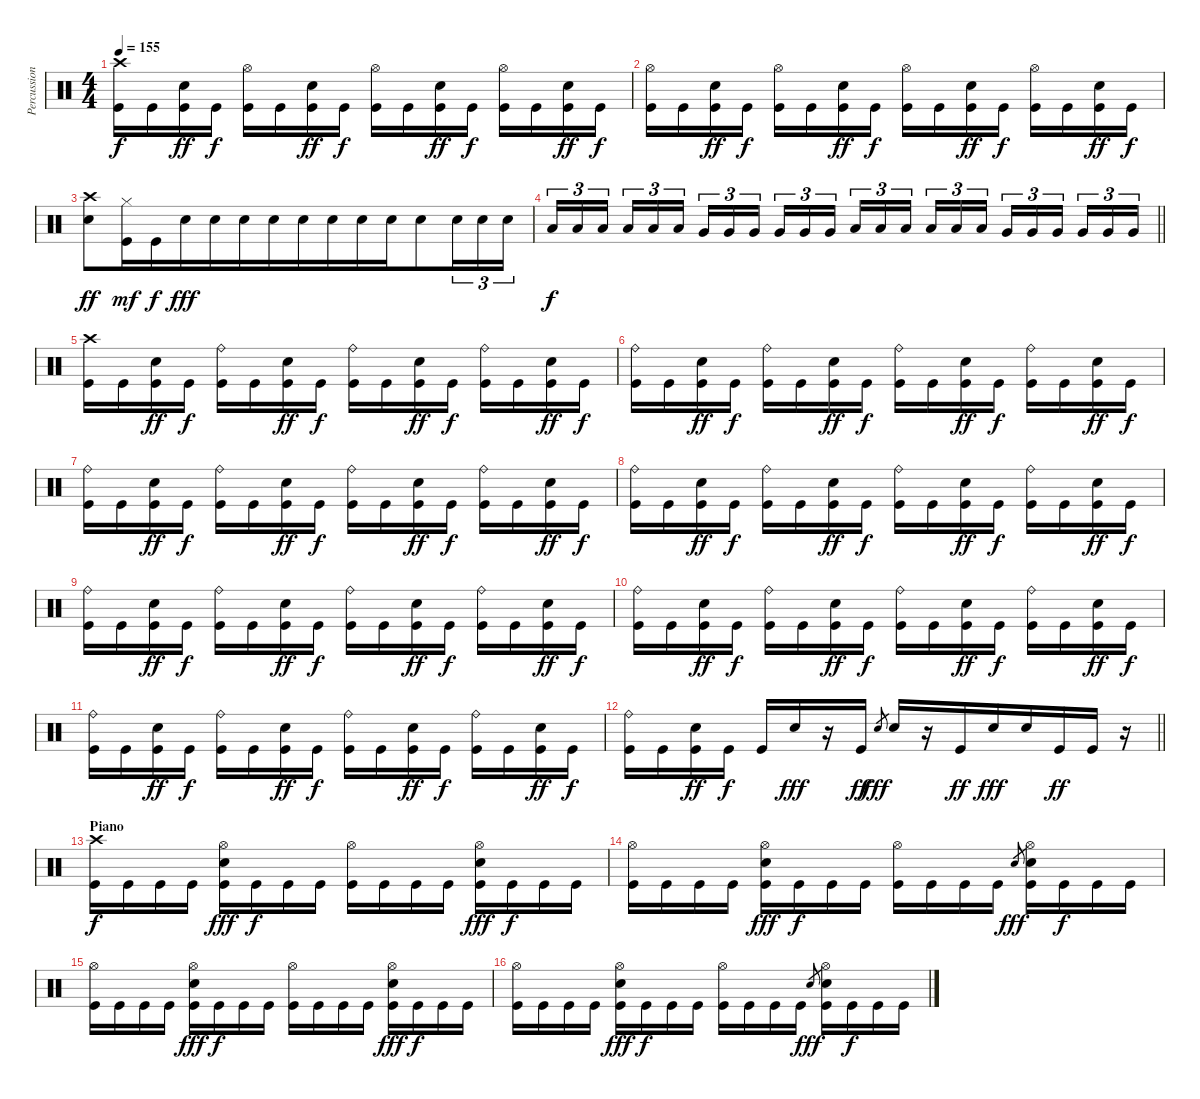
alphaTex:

\track ("Percussions" "Percussion") {instrument percussion}
\staff {score}
\articulation defaults
\ts (4 4)
\tempo 155
\clef neutral
\ks c
("Crash high (hit)" "Kick (hit)").16{dy f} "Kick (hit)".16 ("Electric Snare (hit)" "Kick (hit)").16{dy ff} "Kick (hit)".16{dy f} ("Hi-Hat (open)" "Kick (hit)").16 "Kick (hit)".16 ("Electric Snare (hit)" "Kick (hit)").16{dy ff} "Kick (hit)".16{dy f} ("Hi-Hat (open)" "Kick (hit)").16 "Kick (hit)".16 ("Electric Snare (hit)" "Kick (hit)").16{dy ff} "Kick (hit)".16{dy f} ("Hi-Hat (open)" "Kick (hit)").16 "Kick (hit)".16 ("Electric Snare (hit)" "Kick (hit)").16{dy ff} "Kick (hit)".16{dy f} |
("Hi-Hat (open)" "Kick (hit)").16 "Kick (hit)".16 ("Electric Snare (hit)" "Kick (hit)").16{dy ff} "Kick (hit)".16{dy f} ("Hi-Hat (open)" "Kick (hit)").16 "Kick (hit)".16 ("Electric Snare (hit)" "Kick (hit)").16{dy ff} "Kick (hit)".16{dy f} ("Hi-Hat (open)" "Kick (hit)").16 "Kick (hit)".16 ("Electric Snare (hit)" "Kick (hit)").16{dy ff} "Kick (hit)".16{dy f} ("Hi-Hat (open)" "Kick (hit)").16 "Kick (hit)".16 ("Electric Snare (hit)" "Kick (hit)").16{dy ff} "Kick (hit)".16{dy f} |
("Electric Snare (hit)" "Crash high (hit)").8{dy ff beam merge} ("Kick (hit)" "Hi-Hat (closed)").16{dy mf} "Kick (hit)".16{dy f beam merge} "Electric Snare (hit)".16{dy fff beam merge} "Electric Snare (hit)".16{beam merge} "Electric Snare (hit)".16{beam merge} "Electric Snare (hit)".16{beam merge} "Electric Snare (hit)".16{beam merge} "Electric Snare (hit)".16{beam merge} "Electric Snare (hit)".16{beam merge} "Electric Snare (hit)".16{beam merge} "Electric Snare (hit)".8{beam merge} "Electric Snare (hit)".16{tu (3 2) beam merge} "Electric Snare (hit)".16{tu (3 2) beam merge} "Electric Snare (hit)".16{tu (3 2)} |
\barLineRight lightlight "Low Floor Tom (hit)".16{tu (3 2) dy f beam merge} "Low Floor Tom (hit)".16{tu (3 2) beam merge} "Low Floor Tom (hit)".16{tu (3 2) beam splitsecondary} "Low Floor Tom (hit)".16{tu (3 2) beam merge} "Low Floor Tom (hit)".16{tu (3 2) beam merge} "Low Floor Tom (hit)".16{tu (3 2) beam splitsecondary} "Very Low Tom (hit)".16{tu (3 2) beam merge} "Very Low Tom (hit)".16{tu (3 2) beam merge} "Very Low Tom (hit)".16{tu (3 2) beam splitsecondary} "Very Low Tom (hit)".16{tu (3 2) beam merge} "Very Low Tom (hit)".16{tu (3 2) beam merge} "Very Low Tom (hit)".16{tu (3 2) beam splitsecondary} "Low Floor Tom (hit)".16{tu (3 2) beam merge} "Low Floor Tom (hit)".16{tu (3 2) beam merge} "Low Floor Tom (hit)".16{tu (3 2) beam splitsecondary} "Low Floor Tom (hit)".16{tu (3 2) beam merge} "Low Floor Tom (hit)".16{tu (3 2) beam merge} "Low Floor Tom (hit)".16{tu (3 2) beam splitsecondary} "Very Low Tom (hit)".16{tu (3 2) beam merge} "Very Low Tom (hit)".16{tu (3 2) beam merge} "Very Low Tom (hit)".16{tu (3 2) beam splitsecondary} "Very Low Tom (hit)".16{tu (3 2) beam merge} "Very Low Tom (hit)".16{tu (3 2) beam merge} "Very Low Tom (hit)".16{tu (3 2)}
|
("Crash high (hit)" "Kick (hit)").16 "Kick (hit)".16 ("Electric Snare (hit)" "Kick (hit)").16{dy ff} "Kick (hit)".16{dy f} ("Ride (bell)" "Kick (hit)").16 "Kick (hit)".16 ("Electric Snare (hit)" "Kick (hit)").16{dy ff} "Kick (hit)".16{dy f} ("Ride (bell)" "Kick (hit)").16 "Kick (hit)".16 ("Electric Snare (hit)" "Kick (hit)").16{dy ff} "Kick (hit)".16{dy f} ("Ride (bell)" "Kick (hit)").16 "Kick (hit)".16 ("Electric Snare (hit)" "Kick (hit)").16{dy ff} "Kick (hit)".16{dy f} |
("Ride (bell)" "Kick (hit)").16 "Kick (hit)".16 ("Electric Snare (hit)" "Kick (hit)").16{dy ff} "Kick (hit)".16{dy f} ("Ride (bell)" "Kick (hit)").16 "Kick (hit)".16 ("Electric Snare (hit)" "Kick (hit)").16{dy ff} "Kick (hit)".16{dy f} ("Ride (bell)" "Kick (hit)").16 "Kick (hit)".16 ("Electric Snare (hit)" "Kick (hit)").16{dy ff} "Kick (hit)".16{dy f} ("Ride (bell)" "Kick (hit)").16 "Kick (hit)".16 ("Electric Snare (hit)" "Kick (hit)").16{dy ff} "Kick (hit)".16{dy f} |
("Ride (bell)" "Kick (hit)").16 "Kick (hit)".16 ("Electric Snare (hit)" "Kick (hit)").16{dy ff} "Kick (hit)".16{dy f} ("Ride (bell)" "Kick (hit)").16 "Kick (hit)".16 ("Electric Snare (hit)" "Kick (hit)").16{dy ff} "Kick (hit)".16{dy f} ("Ride (bell)" "Kick (hit)").16 "Kick (hit)".16 ("Electric Snare (hit)" "Kick (hit)").16{dy ff} "Kick (hit)".16{dy f} ("Ride (bell)" "Kick (hit)").16 "Kick (hit)".16 ("Electric Snare (hit)" "Kick (hit)").16{dy ff} "Kick (hit)".16{dy f} |
("Ride (bell)" "Kick (hit)").16 "Kick (hit)".16 ("Electric Snare (hit)" "Kick (hit)").16{dy ff} "Kick (hit)".16{dy f} ("Ride (bell)" "Kick (hit)").16 "Kick (hit)".16 ("Electric Snare (hit)" "Kick (hit)").16{dy ff} "Kick (hit)".16{dy f} ("Ride (bell)" "Kick (hit)").16 "Kick (hit)".16 ("Electric Snare (hit)" "Kick (hit)").16{dy ff} "Kick (hit)".16{dy f} ("Ride (bell)" "Kick (hit)").16 "Kick (hit)".16 ("Electric Snare (hit)" "Kick (hit)").16{dy ff} "Kick (hit)".16{dy f} |
("Ride (bell)" "Kick (hit)").16 "Kick (hit)".16 ("Electric Snare (hit)" "Kick (hit)").16{dy ff} "Kick (hit)".16{dy f} ("Ride (bell)" "Kick (hit)").16 "Kick (hit)".16 ("Electric Snare (hit)" "Kick (hit)").16{dy ff} "Kick (hit)".16{dy f} ("Ride (bell)" "Kick (hit)").16 "Kick (hit)".16 ("Electric Snare (hit)" "Kick (hit)").16{dy ff} "Kick (hit)".16{dy f} ("Ride (bell)" "Kick (hit)").16 "Kick (hit)".16 ("Electric Snare (hit)" "Kick (hit)").16{dy ff} "Kick (hit)".16{dy f} |
("Ride (bell)" "Kick (hit)").16 "Kick (hit)".16 ("Electric Snare (hit)" "Kick (hit)").16{dy ff} "Kick (hit)".16{dy f} ("Ride (bell)" "Kick (hit)").16 "Kick (hit)".16 ("Electric Snare (hit)" "Kick (hit)").16{dy ff} "Kick (hit)".16{dy f} ("Ride (bell)" "Kick (hit)").16 "Kick (hit)".16 ("Electric Snare (hit)" "Kick (hit)").16{dy ff} "Kick (hit)".16{dy f} ("Ride (bell)" "Kick (hit)").16 "Kick (hit)".16 ("Electric Snare (hit)" "Kick (hit)").16{dy ff} "Kick (hit)".16{dy f} |
("Ride (bell)" "Kick (hit)").16 "Kick (hit)".16 ("Electric Snare (hit)" "Kick (hit)").16{dy ff} "Kick (hit)".16{dy f} ("Ride (bell)" "Kick (hit)").16 "Kick (hit)".16 ("Electric Snare (hit)" "Kick (hit)").16{dy ff} "Kick (hit)".16{dy f} ("Ride (bell)" "Kick (hit)").16 "Kick (hit)".16 ("Electric Snare (hit)" "Kick (hit)").16{dy ff} "Kick (hit)".16{dy f} ("Ride (bell)" "Kick (hit)").16 "Kick (hit)".16 ("Electric Snare (hit)" "Kick (hit)").16{dy ff} "Kick (hit)".16{dy f} |
\barLineRight lightlight
("Ride (bell)" "Kick (hit)").16 "Kick (hit)".16 ("Electric Snare (hit)" "Kick (hit)").16{dy ff} "Kick (hit)".16{dy f} "Kick (hit)".16{beam merge} "Electric Snare (hit)".16{dy fff} r.16 "Kick (hit)".16{dy ff} "Electric Snare (hit)".8{gr dy fff beam merge} "Electric Snare (hit)".16 r.16 "Kick (hit)".16{dy ff beam merge} "Electric Snare (hit)".16{dy fff beam merge} "Electric Snare (hit)".16 "Kick (hit)".16{dy ff} "Kick (hit)".16 r.16 |
\section ("" "Piano")
("Crash high (hit)" "Kick (hit)").16{dy f} "Kick (hit)".16 "Kick (hit)".16 "Kick (hit)".16 ("Hi-Hat (open)" "Electric Snare (hit)" "Kick (hit)").16{dy fff} "Kick (hit)".16{dy f} "Kick (hit)".16 "Kick (hit)".16 ("Hi-Hat (open)" "Kick (hit)").16 "Kick (hit)".16 "Kick (hit)".16 "Kick (hit)".16 ("Hi-Hat (open)" "Electric Snare (hit)" "Kick (hit)").16{dy fff} "Kick (hit)".16{dy f} "Kick (hit)".16 "Kick (hit)".16 |
("Hi-Hat (open)" "Kick (hit)").16 "Kick (hit)".16 "Kick (hit)".16 "Kick (hit)".16 ("Hi-Hat (open)" "Electric Snare (hit)" "Kick (hit)").16{dy fff} "Kick (hit)".16{dy f} "Kick (hit)".16 "Kick (hit)".16 ("Hi-Hat (open)" "Kick (hit)").16 "Kick (hit)".16 "Kick (hit)".16 "Kick (hit)".16 "Electric Snare (hit)".8{gr dy fff} ("Hi-Hat (open)" "Electric Snare (hit)" "Kick (hit)").16 "Kick (hit)".16{dy f} "Kick (hit)".16 "Kick (hit)".16 |
("Hi-Hat (open)" "Kick (hit)").16 "Kick (hit)".16 "Kick (hit)".16 "Kick (hit)".16 ("Hi-Hat (open)" "Electric Snare (hit)" "Kick (hit)").16{dy fff} "Kick (hit)".16{dy f} "Kick (hit)".16 "Kick (hit)".16 ("Hi-Hat (open)" "Kick (hit)").16 "Kick (hit)".16 "Kick (hit)".16 "Kick (hit)".16 ("Hi-Hat (open)" "Electric Snare (hit)" "Kick (hit)").16{dy fff} "Kick (hit)".16{dy f} "Kick (hit)".16 "Kick (hit)".16 |
("Hi-Hat (open)" "Kick (hit)").16 "Kick (hit)".16 "Kick (hit)".16 "Kick (hit)".16 ("Hi-Hat (open)" "Electric Snare (hit)" "Kick (hit)").16{dy fff} "Kick (hit)".16{dy f} "Kick (hit)".16 "Kick (hit)".16 ("Hi-Hat (open)" "Kick (hit)").16 "Kick (hit)".16 "Kick (hit)".16 "Kick (hit)".16 "Electric Snare (hit)".8{gr dy fff} ("Hi-Hat (open)" "Electric Snare (hit)" "Kick (hit)").16 "Kick (hit)".16{dy f} "Kick (hit)".16 "Kick (hit)".16
